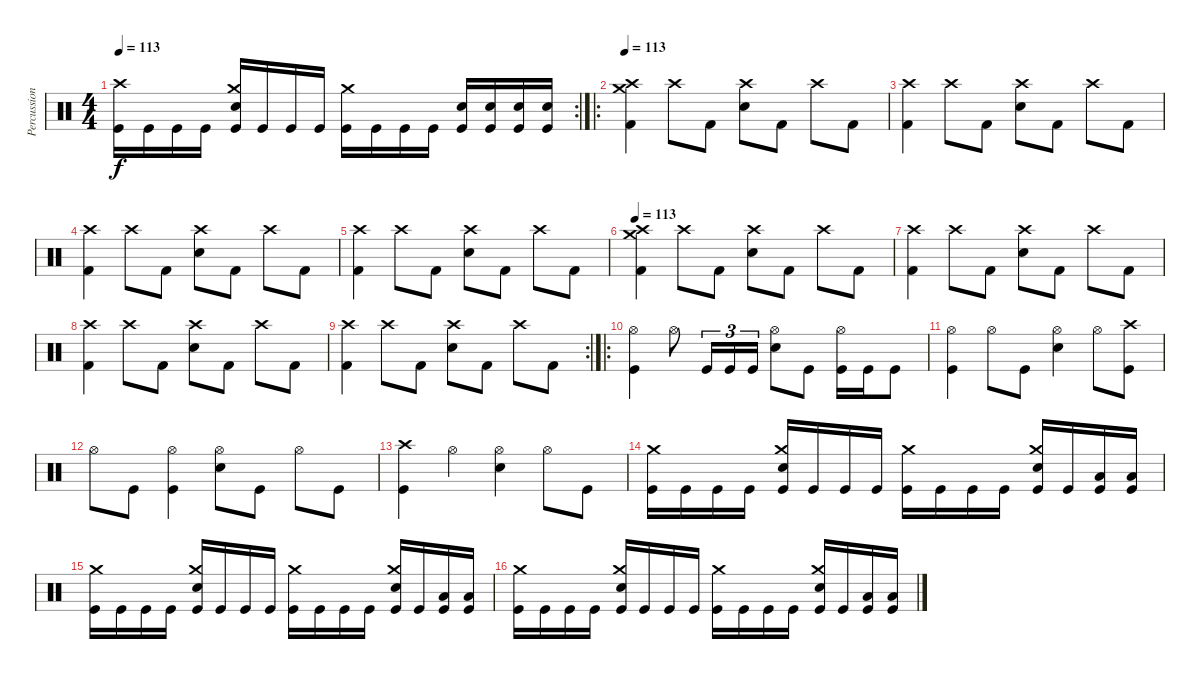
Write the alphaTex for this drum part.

\track ("Percussion" "Percussion") {instrument percussion}
\staff {score}
\articulation defaults
\rc 2
\ts (4 4)
\tempo 113
\clef neutral
\ks c
("Kick (hit)" "Crash high (hit)").16{dy f} "Kick (hit)".16 "Kick (hit)".16 "Kick (hit)".16 ("Kick (hit)" "Crash medium (hit)" "Snare (hit) 2").16 "Kick (hit)".16 "Kick (hit)".16 "Kick (hit)".16 ("Kick (hit)" "Crash medium (hit)").16 "Kick (hit)".16 "Kick (hit)".16 "Kick (hit)".16 ("Kick (hit)" "Snare (hit) 2").16 ("Kick (hit)" "Snare (hit) 2").16 ("Kick (hit)" "Snare (hit) 2").16 ("Kick (hit)" "Snare (hit) 2").16 |
\ro
\tempo 113
("Kick (hit) 2" "Crash high (hit)" "Crash medium (hit)").4 "Crash high (hit)".8 "Kick (hit) 2".8 ("Crash high (hit)" "Snare (hit) 2").8 "Kick (hit) 2".8 "Crash high (hit)".8 "Kick (hit) 2".8 |
("Kick (hit) 2" "Crash high (hit)").4 "Crash high (hit)".8 "Kick (hit) 2".8 ("Crash high (hit)" "Snare (hit) 2").8 "Kick (hit) 2".8 "Crash high (hit)".8 "Kick (hit) 2".8 |
("Kick (hit) 2" "Crash high (hit)").4 "Crash high (hit)".8 "Kick (hit) 2".8 ("Crash high (hit)" "Snare (hit) 2").8 "Kick (hit) 2".8 "Crash high (hit)".8 "Kick (hit) 2".8 |
("Kick (hit) 2" "Crash high (hit)").4 "Crash high (hit)".8 "Kick (hit) 2".8 ("Crash high (hit)" "Snare (hit) 2").8 "Kick (hit) 2".8 "Crash high (hit)".8 "Kick (hit) 2".8 |
\tempo 113
("Kick (hit) 2" "Crash high (hit)" "Crash medium (hit)").4 "Crash high (hit)".8 "Kick (hit) 2".8 ("Crash high (hit)" "Snare (hit) 2").8 "Kick (hit) 2".8 "Crash high (hit)".8 "Kick (hit) 2".8 |
("Kick (hit) 2" "Crash high (hit)").4 "Crash high (hit)".8 "Kick (hit) 2".8 ("Crash high (hit)" "Snare (hit) 2").8 "Kick (hit) 2".8 "Crash high (hit)".8 "Kick (hit) 2".8 |
("Kick (hit) 2" "Crash high (hit)").4 "Crash high (hit)".8 "Kick (hit) 2".8 ("Crash high (hit)" "Snare (hit) 2").8 "Kick (hit) 2".8 "Crash high (hit)".8 "Kick (hit) 2".8 |
\rc 2
("Kick (hit) 2" "Crash high (hit)").4 "Crash high (hit)".8 "Kick (hit) 2".8 ("Crash high (hit)" "Snare (hit) 2").8 "Kick (hit) 2".8 "Crash high (hit)".8 "Kick (hit) 2".8 |
\ro
("Kick (hit)" "Hi-Hat (open)").4 "Hi-Hat (open)".8 "Kick (hit)".16{tu (3 2)} "Kick (hit)".16{tu (3 2)} "Kick (hit)".16{tu (3 2)} ("Hi-Hat (open)" "Snare (hit) 2").8 "Kick (hit)".8 ("Kick (hit)" "Hi-Hat (open)").16 "Kick (hit)".16 "Kick (hit)".8 |
("Kick (hit)" "Hi-Hat (open)").4 "Hi-Hat (open)".8 "Kick (hit)".8 ("Hi-Hat (open)" "Snare (hit) 2").4 "Hi-Hat (open)".8 ("Kick (hit)" "Crash high (hit)").8 |
"Hi-Hat (open)".8 "Kick (hit)".8 ("Kick (hit)" "Hi-Hat (open)").4 ("Hi-Hat (open)" "Snare (hit) 2").8 "Kick (hit)".8 "Hi-Hat (open)".8 "Kick (hit)".8 |
("Kick (hit)" "Crash high (hit)").4 "Hi-Hat (open)".4 ("Hi-Hat (open)" "Snare (hit) 2").4 "Hi-Hat (open)".8 "Kick (hit)".8 |
("Kick (hit)" "Crash medium (hit)").16 "Kick (hit)".16 "Kick (hit)".16 "Kick (hit)".16 ("Kick (hit)" "Crash medium (hit)" "Snare (hit) 2").16 "Kick (hit)".16 "Kick (hit)".16 "Kick (hit)".16 ("Kick (hit)" "Crash medium (hit)").16 "Kick (hit)".16 "Kick (hit)".16 "Kick (hit)".16 ("Kick (hit)" "Crash medium (hit)" "Snare (hit) 2").16 "Kick (hit)".16 ("Kick (hit)" "Low Floor Tom (hit)").16 ("Kick (hit)" "Low Floor Tom (hit)").16 |
("Kick (hit)" "Crash medium (hit)").16 "Kick (hit)".16 "Kick (hit)".16 "Kick (hit)".16 ("Kick (hit)" "Crash medium (hit)" "Snare (hit) 2").16 "Kick (hit)".16 "Kick (hit)".16 "Kick (hit)".16 ("Kick (hit)" "Crash medium (hit)").16 "Kick (hit)".16 "Kick (hit)".16 "Kick (hit)".16 ("Kick (hit)" "Crash medium (hit)" "Snare (hit) 2").16 "Kick (hit)".16 ("Kick (hit)" "Low Floor Tom (hit)").16 ("Kick (hit)" "Low Floor Tom (hit)").16 |
("Kick (hit)" "Crash medium (hit)").16 "Kick (hit)".16 "Kick (hit)".16 "Kick (hit)".16 ("Kick (hit)" "Crash medium (hit)" "Snare (hit) 2").16 "Kick (hit)".16 "Kick (hit)".16 "Kick (hit)".16 ("Kick (hit)" "Crash medium (hit)").16 "Kick (hit)".16 "Kick (hit)".16 "Kick (hit)".16 ("Kick (hit)" "Crash medium (hit)" "Snare (hit) 2").16 "Kick (hit)".16 ("Kick (hit)" "Low Floor Tom (hit)").16 ("Kick (hit)" "Low Floor Tom (hit)").16
